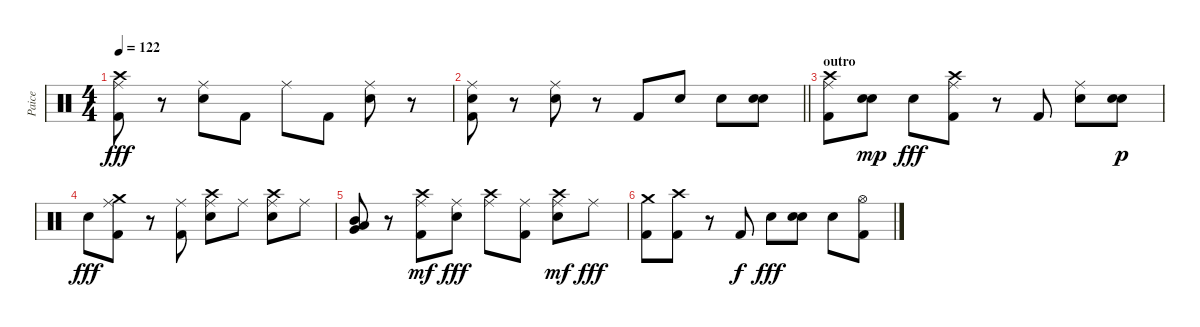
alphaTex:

\track ("Paice" "Paice") {instrument percussion}
\staff {score}
\articulation defaults
\ts (4 4)
\tempo 122
\clef neutral
\ks c
("Ride (middle)" "Crash high (hit)" "Kick (hit) 2").8{dy fff} r.8 ("Electric Snare (hit)" "Ride (middle)").8 "Kick (hit) 2".8 "Ride (middle)".8 "Kick (hit) 2".8 ("Ride (middle)" "Electric Snare (hit)").8 r.8 |
\barLineRight lightlight
("Electric Snare (hit)" "Kick (hit) 2" "Ride (middle)").8 r.8 ("Electric Snare (hit)" "Ride (middle)").8 r.8 "Kick (hit) 2".8 "Electric Snare (hit)".8 "Electric Snare (hit)".8 ("Electric Snare (hit)" "Electric Snare (hit)").8 |
\section ("" "outro")
("Crash high (hit)" "Kick (hit) 2" "Ride (middle)").8 ("Electric Snare (hit)" "Electric Snare (hit)").8{dy mp} "Electric Snare (hit)".8{dy fff} ("Crash high (hit)" "Kick (hit) 2" "Ride (middle)").8 r.8 "Kick (hit) 2".8 ("Ride (middle)" "Electric Snare (hit)").8 ("Electric Snare (hit)" "Electric Snare (hit)").8{dy p} |
"Electric Snare (hit)".8{dy fff} ("Crash medium (hit)" "Kick (hit) 2" "Ride (middle)").8 r.8 ("Ride (middle)" "Kick (hit) 2").8 ("Crash high (hit)" "Ride (middle)" "Electric Snare (hit)").8 "Ride (middle)".8 ("Crash high (hit)" "Ride (middle)" "Electric Snare (hit)").8 "Ride (middle)".8 |
("Mid Tom (hit)" "Low Tom (hit)" "Very Low Tom (hit)").8 r.8 ("Kick (hit) 2" "Ride (middle)" "Crash high (hit)").8{dy mf} ("Electric Snare (hit)" "Ride (middle)").8{dy fff} ("Crash high (hit)" "Ride (middle)").8 ("Ride (middle)" "Kick (hit) 2").8 ("Ride (middle)" "Electric Snare (hit)" "Crash high (hit)").8{dy mf} "Ride (middle)".8{dy fff} |
("Crash medium (hit)" "Kick (hit) 2").8 ("Crash high (hit)" "Kick (hit) 2").8 r.8 "Kick (hit) 2".8{dy f} "Electric Snare (hit)".8{dy fff} ("Electric Snare (hit)" "Electric Snare (hit)").8 "Electric Snare (hit)".8 ("Kick (hit) 2" "Hi-Hat (open)").8
